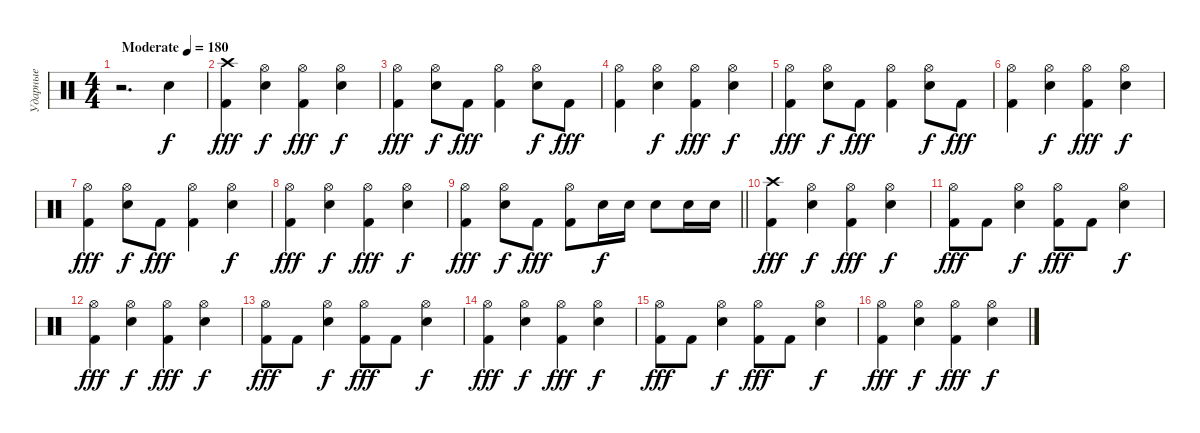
\track ("Ударные" "Ударные") {instrument percussion}
\staff {score}
\articulation defaults
\ts (4 4)
\tempo (180 "Moderate")
\clef neutral
\ks c
r.2{d dy f} "Snare (hit) 2".4 |
("Kick (hit) 2" "Crash high (hit)").4{dy fff} ("Snare (hit) 2" "Hi-Hat (open)").4{dy f} ("Kick (hit) 2" "Hi-Hat (open)").4{dy fff} ("Snare (hit) 2" "Hi-Hat (open)").4{dy f} |
("Kick (hit) 2" "Hi-Hat (open)").4{dy fff} ("Snare (hit) 2" "Hi-Hat (open)").8{dy f} "Kick (hit) 2".8{dy fff} ("Kick (hit) 2" "Hi-Hat (open)").4 ("Snare (hit) 2" "Hi-Hat (open)").8{dy f} "Kick (hit) 2".8{dy fff} |
("Kick (hit) 2" "Hi-Hat (open)").4 ("Snare (hit) 2" "Hi-Hat (open)").4{dy f} ("Kick (hit) 2" "Hi-Hat (open)").4{dy fff} ("Snare (hit) 2" "Hi-Hat (open)").4{dy f} |
("Kick (hit) 2" "Hi-Hat (open)").4{dy fff} ("Snare (hit) 2" "Hi-Hat (open)").8{dy f} "Kick (hit) 2".8{dy fff} ("Kick (hit) 2" "Hi-Hat (open)").4 ("Snare (hit) 2" "Hi-Hat (open)").8{dy f} "Kick (hit) 2".8{dy fff} |
("Kick (hit) 2" "Hi-Hat (open)").4 ("Snare (hit) 2" "Hi-Hat (open)").4{dy f} ("Kick (hit) 2" "Hi-Hat (open)").4{dy fff} ("Snare (hit) 2" "Hi-Hat (open)").4{dy f} |
("Kick (hit) 2" "Hi-Hat (open)").4{dy fff} ("Snare (hit) 2" "Hi-Hat (open)").8{dy f} "Kick (hit) 2".8{dy fff} ("Kick (hit) 2" "Hi-Hat (open)").4 ("Snare (hit) 2" "Hi-Hat (open)").4{dy f} |
("Kick (hit) 2" "Hi-Hat (open)").4{dy fff} ("Snare (hit) 2" "Hi-Hat (open)").4{dy f} ("Kick (hit) 2" "Hi-Hat (open)").4{dy fff} ("Snare (hit) 2" "Hi-Hat (open)").4{dy f} |
\barLineRight lightlight
("Kick (hit) 2" "Hi-Hat (open)").4{dy fff} ("Snare (hit) 2" "Hi-Hat (open)").8{dy f} "Kick (hit) 2".8{dy fff} ("Kick (hit) 2" "Hi-Hat (open)").8 "Snare (hit) 2".16{dy f} "Snare (hit) 2".16 "Snare (hit) 2".8 "Snare (hit) 2".16 "Snare (hit) 2".16 |
("Kick (hit) 2" "Crash high (hit)").4{dy fff} ("Snare (hit) 2" "Hi-Hat (open)").4{dy f} ("Kick (hit) 2" "Hi-Hat (open)").4{dy fff} ("Snare (hit) 2" "Hi-Hat (open)").4{dy f} |
("Kick (hit) 2" "Hi-Hat (open)").8{dy fff} "Kick (hit) 2".8 ("Snare (hit) 2" "Hi-Hat (open)").4{dy f} ("Kick (hit) 2" "Hi-Hat (open)").8{dy fff} "Kick (hit) 2".8 ("Snare (hit) 2" "Hi-Hat (open)").4{dy f} |
("Kick (hit) 2" "Hi-Hat (open)").4{dy fff} ("Snare (hit) 2" "Hi-Hat (open)").4{dy f} ("Kick (hit) 2" "Hi-Hat (open)").4{dy fff} ("Snare (hit) 2" "Hi-Hat (open)").4{dy f} |
("Kick (hit) 2" "Hi-Hat (open)").8{dy fff} "Kick (hit) 2".8 ("Snare (hit) 2" "Hi-Hat (open)").4{dy f} ("Kick (hit) 2" "Hi-Hat (open)").8{dy fff} "Kick (hit) 2".8 ("Snare (hit) 2" "Hi-Hat (open)").4{dy f} |
("Kick (hit) 2" "Hi-Hat (open)").4{dy fff} ("Snare (hit) 2" "Hi-Hat (open)").4{dy f} ("Kick (hit) 2" "Hi-Hat (open)").4{dy fff} ("Snare (hit) 2" "Hi-Hat (open)").4{dy f} |
("Kick (hit) 2" "Hi-Hat (open)").8{dy fff} "Kick (hit) 2".8 ("Snare (hit) 2" "Hi-Hat (open)").4{dy f} ("Kick (hit) 2" "Hi-Hat (open)").8{dy fff} "Kick (hit) 2".8 ("Snare (hit) 2" "Hi-Hat (open)").4{dy f} |
("Kick (hit) 2" "Hi-Hat (open)").4{dy fff} ("Snare (hit) 2" "Hi-Hat (open)").4{dy f} ("Kick (hit) 2" "Hi-Hat (open)").4{dy fff} ("Snare (hit) 2" "Hi-Hat (open)").4{dy f}
